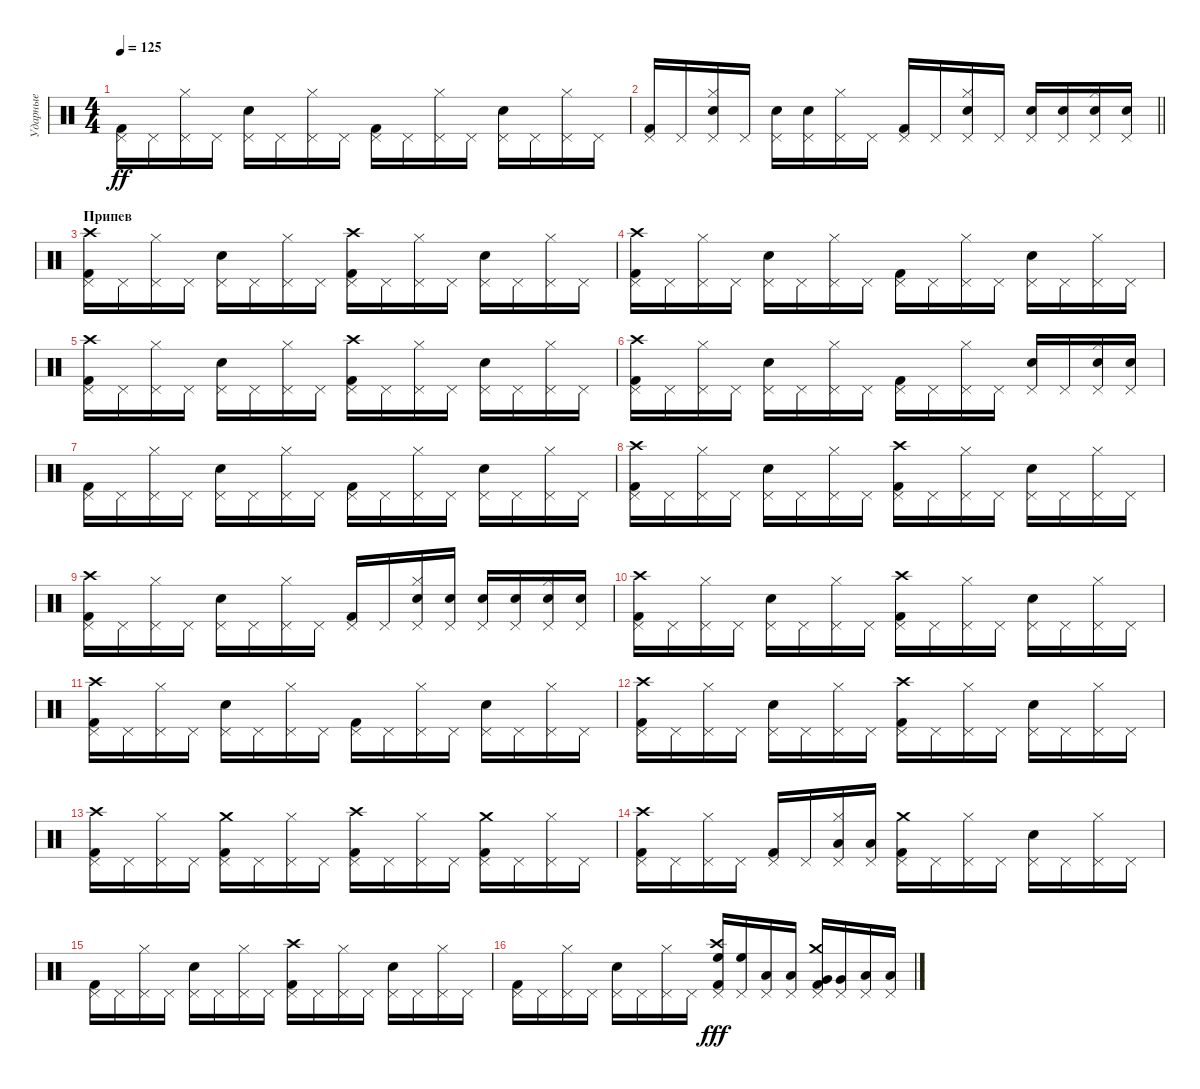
\track ("Ударные" "Ударные") {instrument percussion}
\staff {score}
\articulation defaults
\ts (4 4)
\tempo 125
\clef neutral
\ks c
("Kick (hit) 2" "Pedal Hi-Hat (hit)").16{dy ff} "Pedal Hi-Hat (hit)".16 ("Hi-Hat (closed)" "Pedal Hi-Hat (hit)").16 "Pedal Hi-Hat (hit)".16 ("Snare (hit) 2" "Pedal Hi-Hat (hit)").16 "Pedal Hi-Hat (hit)".16 ("Hi-Hat (closed)" "Pedal Hi-Hat (hit)").16 "Pedal Hi-Hat (hit)".16 ("Kick (hit) 2" "Pedal Hi-Hat (hit)").16 "Pedal Hi-Hat (hit)".16 ("Hi-Hat (closed)" "Pedal Hi-Hat (hit)").16 "Pedal Hi-Hat (hit)".16 ("Snare (hit) 2" "Pedal Hi-Hat (hit)").16 "Pedal Hi-Hat (hit)".16 ("Hi-Hat (closed)" "Pedal Hi-Hat (hit)").16 "Pedal Hi-Hat (hit)".16 |
\barLineRight lightlight
("Kick (hit) 2" "Pedal Hi-Hat (hit)").16 "Pedal Hi-Hat (hit)".16 ("Hi-Hat (closed)" "Snare (hit) 2" "Pedal Hi-Hat (hit)").16 "Pedal Hi-Hat (hit)".16 ("Snare (hit) 2" "Pedal Hi-Hat (hit)").16 ("Snare (hit) 2" "Pedal Hi-Hat (hit)").16 ("Hi-Hat (closed)" "Pedal Hi-Hat (hit)").16 "Pedal Hi-Hat (hit)".16 ("Kick (hit) 2" "Pedal Hi-Hat (hit)").16 "Pedal Hi-Hat (hit)".16 ("Hi-Hat (closed)" "Snare (hit) 2" "Pedal Hi-Hat (hit)").16 "Pedal Hi-Hat (hit)".16 ("Snare (hit) 2" "Pedal Hi-Hat (hit)").16 ("Snare (hit) 2" "Pedal Hi-Hat (hit)").16 ("Hi-Hat (closed)" "Electric Snare (hit)" "Pedal Hi-Hat (hit)").16 ("Electric Snare (hit)" "Pedal Hi-Hat (hit)").16 |
\section ("" "Припев")
("Crash high (hit)" "Kick (hit) 2" "Pedal Hi-Hat (hit)").16 "Pedal Hi-Hat (hit)".16 ("Hi-Hat (closed)" "Pedal Hi-Hat (hit)").16 "Pedal Hi-Hat (hit)".16 ("Snare (hit) 2" "Pedal Hi-Hat (hit)").16 "Pedal Hi-Hat (hit)".16 ("Hi-Hat (closed)" "Pedal Hi-Hat (hit)").16 "Pedal Hi-Hat (hit)".16 ("Crash high (hit)" "Kick (hit) 2" "Pedal Hi-Hat (hit)").16 "Pedal Hi-Hat (hit)".16 ("Hi-Hat (closed)" "Pedal Hi-Hat (hit)").16 "Pedal Hi-Hat (hit)".16 ("Snare (hit) 2" "Pedal Hi-Hat (hit)").16 "Pedal Hi-Hat (hit)".16 ("Hi-Hat (closed)" "Pedal Hi-Hat (hit)").16 "Pedal Hi-Hat (hit)".16 |
("Crash high (hit)" "Kick (hit) 2" "Pedal Hi-Hat (hit)").16 "Pedal Hi-Hat (hit)".16 ("Hi-Hat (closed)" "Pedal Hi-Hat (hit)").16 "Pedal Hi-Hat (hit)".16 ("Snare (hit) 2" "Pedal Hi-Hat (hit)").16 "Pedal Hi-Hat (hit)".16 ("Hi-Hat (closed)" "Pedal Hi-Hat (hit)").16 "Pedal Hi-Hat (hit)".16 ("Kick (hit) 2" "Pedal Hi-Hat (hit)").16 "Pedal Hi-Hat (hit)".16 ("Hi-Hat (closed)" "Pedal Hi-Hat (hit)").16 "Pedal Hi-Hat (hit)".16 ("Snare (hit) 2" "Pedal Hi-Hat (hit)").16 "Pedal Hi-Hat (hit)".16 ("Hi-Hat (closed)" "Pedal Hi-Hat (hit)").16 "Pedal Hi-Hat (hit)".16 |
("Crash high (hit)" "Kick (hit) 2" "Pedal Hi-Hat (hit)").16 "Pedal Hi-Hat (hit)".16 ("Hi-Hat (closed)" "Pedal Hi-Hat (hit)").16 "Pedal Hi-Hat (hit)".16 ("Snare (hit) 2" "Pedal Hi-Hat (hit)").16 "Pedal Hi-Hat (hit)".16 ("Hi-Hat (closed)" "Pedal Hi-Hat (hit)").16 "Pedal Hi-Hat (hit)".16 ("Crash high (hit)" "Kick (hit) 2" "Pedal Hi-Hat (hit)").16 "Pedal Hi-Hat (hit)".16 ("Hi-Hat (closed)" "Pedal Hi-Hat (hit)").16 "Pedal Hi-Hat (hit)".16 ("Snare (hit) 2" "Pedal Hi-Hat (hit)").16 "Pedal Hi-Hat (hit)".16 ("Hi-Hat (closed)" "Pedal Hi-Hat (hit)").16 "Pedal Hi-Hat (hit)".16 |
("Crash high (hit)" "Kick (hit) 2" "Pedal Hi-Hat (hit)").16 "Pedal Hi-Hat (hit)".16 ("Hi-Hat (closed)" "Pedal Hi-Hat (hit)").16 "Pedal Hi-Hat (hit)".16 ("Snare (hit) 2" "Pedal Hi-Hat (hit)").16 "Pedal Hi-Hat (hit)".16 ("Hi-Hat (closed)" "Pedal Hi-Hat (hit)").16 "Pedal Hi-Hat (hit)".16 ("Kick (hit) 2" "Pedal Hi-Hat (hit)").16 "Pedal Hi-Hat (hit)".16 ("Hi-Hat (closed)" "Pedal Hi-Hat (hit)").16 "Pedal Hi-Hat (hit)".16 ("Snare (hit) 2" "Pedal Hi-Hat (hit)").16 "Pedal Hi-Hat (hit)".16 ("Hi-Hat (closed)" "Electric Snare (hit)" "Pedal Hi-Hat (hit)").16 ("Electric Snare (hit)" "Pedal Hi-Hat (hit)").16 |
("Kick (hit) 2" "Pedal Hi-Hat (hit)").16 "Pedal Hi-Hat (hit)".16 ("Hi-Hat (closed)" "Pedal Hi-Hat (hit)").16 "Pedal Hi-Hat (hit)".16 ("Snare (hit) 2" "Pedal Hi-Hat (hit)").16 "Pedal Hi-Hat (hit)".16 ("Hi-Hat (closed)" "Pedal Hi-Hat (hit)").16 "Pedal Hi-Hat (hit)".16 ("Kick (hit) 2" "Pedal Hi-Hat (hit)").16 "Pedal Hi-Hat (hit)".16 ("Hi-Hat (closed)" "Pedal Hi-Hat (hit)").16 "Pedal Hi-Hat (hit)".16 ("Snare (hit) 2" "Pedal Hi-Hat (hit)").16 "Pedal Hi-Hat (hit)".16 ("Hi-Hat (closed)" "Pedal Hi-Hat (hit)").16 "Pedal Hi-Hat (hit)".16 |
("Crash high (hit)" "Kick (hit) 2" "Pedal Hi-Hat (hit)").16 "Pedal Hi-Hat (hit)".16 ("Hi-Hat (closed)" "Pedal Hi-Hat (hit)").16 "Pedal Hi-Hat (hit)".16 ("Snare (hit) 2" "Pedal Hi-Hat (hit)").16 "Pedal Hi-Hat (hit)".16 ("Hi-Hat (closed)" "Pedal Hi-Hat (hit)").16 "Pedal Hi-Hat (hit)".16 ("Crash high (hit)" "Kick (hit) 2" "Pedal Hi-Hat (hit)").16 "Pedal Hi-Hat (hit)".16 ("Hi-Hat (closed)" "Pedal Hi-Hat (hit)").16 "Pedal Hi-Hat (hit)".16 ("Snare (hit) 2" "Pedal Hi-Hat (hit)").16 "Pedal Hi-Hat (hit)".16 ("Hi-Hat (closed)" "Pedal Hi-Hat (hit)").16 "Pedal Hi-Hat (hit)".16 |
("Crash high (hit)" "Kick (hit) 2" "Pedal Hi-Hat (hit)").16 "Pedal Hi-Hat (hit)".16 ("Hi-Hat (closed)" "Pedal Hi-Hat (hit)").16 "Pedal Hi-Hat (hit)".16 ("Snare (hit) 2" "Pedal Hi-Hat (hit)").16 "Pedal Hi-Hat (hit)".16 ("Hi-Hat (closed)" "Pedal Hi-Hat (hit)").16 "Pedal Hi-Hat (hit)".16 ("Kick (hit) 2" "Pedal Hi-Hat (hit)").16 "Pedal Hi-Hat (hit)".16 ("Hi-Hat (closed)" "Snare (hit) 2" "Pedal Hi-Hat (hit)").16 ("Snare (hit) 2" "Pedal Hi-Hat (hit)").16 ("Snare (hit) 2" "Pedal Hi-Hat (hit)").16 ("Snare (hit) 2" "Pedal Hi-Hat (hit)").16 ("Hi-Hat (closed)" "Snare (hit) 2" "Pedal Hi-Hat (hit)").16 ("Snare (hit) 2" "Pedal Hi-Hat (hit)").16 |
("Crash high (hit)" "Kick (hit) 2" "Pedal Hi-Hat (hit)").16 "Pedal Hi-Hat (hit)".16 ("Hi-Hat (closed)" "Pedal Hi-Hat (hit)").16 "Pedal Hi-Hat (hit)".16 ("Snare (hit) 2" "Pedal Hi-Hat (hit)").16 "Pedal Hi-Hat (hit)".16 ("Hi-Hat (closed)" "Pedal Hi-Hat (hit)").16 "Pedal Hi-Hat (hit)".16 ("Crash high (hit)" "Kick (hit) 2" "Pedal Hi-Hat (hit)").16 "Pedal Hi-Hat (hit)".16 ("Hi-Hat (closed)" "Pedal Hi-Hat (hit)").16 "Pedal Hi-Hat (hit)".16 ("Snare (hit) 2" "Pedal Hi-Hat (hit)").16 "Pedal Hi-Hat (hit)".16 ("Hi-Hat (closed)" "Pedal Hi-Hat (hit)").16 "Pedal Hi-Hat (hit)".16 |
("Crash high (hit)" "Kick (hit) 2" "Pedal Hi-Hat (hit)").16 "Pedal Hi-Hat (hit)".16 ("Hi-Hat (closed)" "Pedal Hi-Hat (hit)").16 "Pedal Hi-Hat (hit)".16 ("Snare (hit) 2" "Pedal Hi-Hat (hit)").16 "Pedal Hi-Hat (hit)".16 ("Hi-Hat (closed)" "Pedal Hi-Hat (hit)").16 "Pedal Hi-Hat (hit)".16 ("Kick (hit) 2" "Pedal Hi-Hat (hit)").16 "Pedal Hi-Hat (hit)".16 ("Hi-Hat (closed)" "Pedal Hi-Hat (hit)").16 "Pedal Hi-Hat (hit)".16 ("Snare (hit) 2" "Pedal Hi-Hat (hit)").16 "Pedal Hi-Hat (hit)".16 ("Hi-Hat (closed)" "Pedal Hi-Hat (hit)").16 "Pedal Hi-Hat (hit)".16 |
("Crash high (hit)" "Kick (hit) 2" "Pedal Hi-Hat (hit)").16 "Pedal Hi-Hat (hit)".16 ("Hi-Hat (closed)" "Pedal Hi-Hat (hit)").16 "Pedal Hi-Hat (hit)".16 ("Snare (hit) 2" "Pedal Hi-Hat (hit)").16 "Pedal Hi-Hat (hit)".16 ("Hi-Hat (closed)" "Pedal Hi-Hat (hit)").16 "Pedal Hi-Hat (hit)".16 ("Crash high (hit)" "Kick (hit) 2" "Pedal Hi-Hat (hit)").16 "Pedal Hi-Hat (hit)".16 ("Hi-Hat (closed)" "Pedal Hi-Hat (hit)").16 "Pedal Hi-Hat (hit)".16 ("Snare (hit) 2" "Pedal Hi-Hat (hit)").16 "Pedal Hi-Hat (hit)".16 ("Hi-Hat (closed)" "Pedal Hi-Hat (hit)").16 "Pedal Hi-Hat (hit)".16 |
("Crash high (hit)" "Kick (hit) 2" "Pedal Hi-Hat (hit)").16 "Pedal Hi-Hat (hit)".16 ("Hi-Hat (closed)" "Pedal Hi-Hat (hit)").16 "Pedal Hi-Hat (hit)".16 ("Crash medium (hit)" "Kick (hit) 2" "Pedal Hi-Hat (hit)").16 "Pedal Hi-Hat (hit)".16 ("Hi-Hat (closed)" "Pedal Hi-Hat (hit)").16 "Pedal Hi-Hat (hit)".16 ("Crash high (hit)" "Kick (hit) 2" "Pedal Hi-Hat (hit)").16 "Pedal Hi-Hat (hit)".16 ("Hi-Hat (closed)" "Pedal Hi-Hat (hit)").16 "Pedal Hi-Hat (hit)".16 ("Crash medium (hit)" "Kick (hit) 2" "Pedal Hi-Hat (hit)").16 "Pedal Hi-Hat (hit)".16 ("Hi-Hat (closed)" "Pedal Hi-Hat (hit)").16 "Pedal Hi-Hat (hit)".16 |
("Crash high (hit)" "Kick (hit) 2" "Pedal Hi-Hat (hit)").16 "Pedal Hi-Hat (hit)".16 ("Hi-Hat (closed)" "Pedal Hi-Hat (hit)").16 "Pedal Hi-Hat (hit)".16 ("Kick (hit) 2" "Pedal Hi-Hat (hit)").16 "Pedal Hi-Hat (hit)".16 ("Hi-Hat (closed)" "Low Tom (hit)" "Pedal Hi-Hat (hit)").16 ("Low Tom (hit)" "Pedal Hi-Hat (hit)").16 ("Crash medium (hit)" "Kick (hit) 2" "Pedal Hi-Hat (hit)").16 "Pedal Hi-Hat (hit)".16 ("Hi-Hat (closed)" "Pedal Hi-Hat (hit)").16 "Pedal Hi-Hat (hit)".16 ("Snare (hit) 2" "Pedal Hi-Hat (hit)").16 "Pedal Hi-Hat (hit)".16 ("Hi-Hat (closed)" "Pedal Hi-Hat (hit)").16 "Pedal Hi-Hat (hit)".16 |
("Kick (hit) 2" "Pedal Hi-Hat (hit)").16 "Pedal Hi-Hat (hit)".16 ("Hi-Hat (closed)" "Pedal Hi-Hat (hit)").16 "Pedal Hi-Hat (hit)".16 ("Snare (hit) 2" "Pedal Hi-Hat (hit)").16 "Pedal Hi-Hat (hit)".16 ("Hi-Hat (closed)" "Pedal Hi-Hat (hit)").16 "Pedal Hi-Hat (hit)".16 ("Crash high (hit)" "Kick (hit) 2" "Pedal Hi-Hat (hit)").16 "Pedal Hi-Hat (hit)".16 ("Hi-Hat (closed)" "Pedal Hi-Hat (hit)").16 "Pedal Hi-Hat (hit)".16 ("Snare (hit) 2" "Pedal Hi-Hat (hit)").16 "Pedal Hi-Hat (hit)".16 ("Hi-Hat (closed)" "Pedal Hi-Hat (hit)").16 "Pedal Hi-Hat (hit)".16 |
("Kick (hit) 2" "Pedal Hi-Hat (hit)").16 "Pedal Hi-Hat (hit)".16 ("Hi-Hat (closed)" "Pedal Hi-Hat (hit)").16 "Pedal Hi-Hat (hit)".16 ("Snare (hit) 2" "Pedal Hi-Hat (hit)").16 "Pedal Hi-Hat (hit)".16 ("Hi-Hat (closed)" "Pedal Hi-Hat (hit)").16 "Pedal Hi-Hat (hit)".16 ("Crash high (hit)" "High Floor Tom (hit)" "Pedal Hi-Hat (hit)" "Kick (hit) 2").16{dy fff} ("High Floor Tom (hit)" "Pedal Hi-Hat (hit)").16 ("Low Tom (hit)" "Pedal Hi-Hat (hit)").16 ("Low Tom (hit)" "Pedal Hi-Hat (hit)").16 ("Crash medium (hit)" "Very Low Tom (hit)" "Pedal Hi-Hat (hit)" "Kick (hit) 2").16 ("Very Low Tom (hit)" "Pedal Hi-Hat (hit)").16 ("Low Floor Tom (hit)" "Pedal Hi-Hat (hit)").16 ("Low Floor Tom (hit)" "Pedal Hi-Hat (hit)").16
